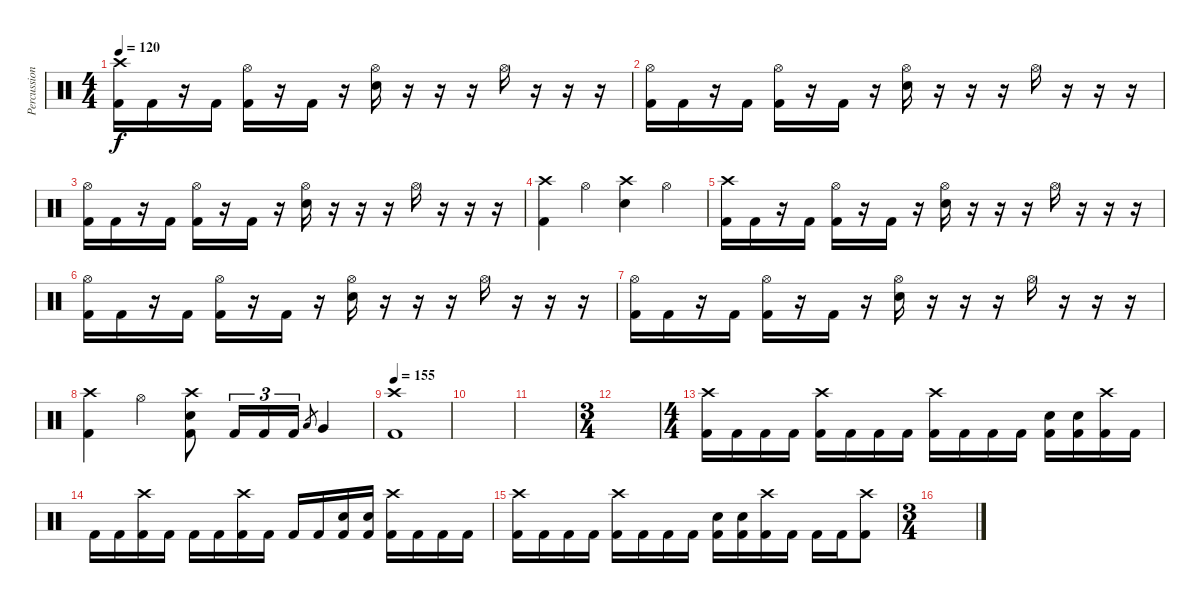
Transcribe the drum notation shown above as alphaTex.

\track ("Percussion" "Percussion") {instrument percussion}
\staff {score}
\articulation defaults
\ts (4 4)
\tempo 120
\clef neutral
\ks c
("Crash high (hit)" "Kick (hit) 2").16{dy f} "Kick (hit) 2".16 r.16 "Kick (hit) 2".16 ("Hi-Hat (open)" "Kick (hit) 2").16 r.16 "Kick (hit) 2".16 r.16 ("Hi-Hat (open)" "Snare (hit) 2").16 r.16 r.16 r.16 "Hi-Hat (open)".16 r.16 r.16 r.16 |
("Hi-Hat (open)" "Kick (hit) 2").16 "Kick (hit) 2".16 r.16 "Kick (hit) 2".16 ("Hi-Hat (open)" "Kick (hit) 2").16 r.16 "Kick (hit) 2".16 r.16 ("Hi-Hat (open)" "Snare (hit) 2").16 r.16 r.16 r.16 "Hi-Hat (open)".16 r.16 r.16 r.16 |
("Hi-Hat (open)" "Kick (hit) 2").16 "Kick (hit) 2".16 r.16 "Kick (hit) 2".16 ("Hi-Hat (open)" "Kick (hit) 2").16 r.16 "Kick (hit) 2".16 r.16 ("Hi-Hat (open)" "Snare (hit) 2").16 r.16 r.16 r.16 "Hi-Hat (open)".16 r.16 r.16 r.16 |
("Crash high (hit)" "Kick (hit) 2").4 "Hi-Hat (open)".4 ("Crash high (hit)" "Snare (hit) 2").4 "Hi-Hat (open)".4 |
("Crash high (hit)" "Kick (hit) 2").16 "Kick (hit) 2".16 r.16 "Kick (hit) 2".16 ("Hi-Hat (open)" "Kick (hit) 2").16 r.16 "Kick (hit) 2".16 r.16 ("Hi-Hat (open)" "Snare (hit) 2").16 r.16 r.16 r.16 "Hi-Hat (open)".16 r.16 r.16 r.16 |
("Hi-Hat (open)" "Kick (hit) 2").16 "Kick (hit) 2".16 r.16 "Kick (hit) 2".16 ("Hi-Hat (open)" "Kick (hit) 2").16 r.16 "Kick (hit) 2".16 r.16 ("Hi-Hat (open)" "Snare (hit) 2").16 r.16 r.16 r.16 "Hi-Hat (open)".16 r.16 r.16 r.16 |
("Hi-Hat (open)" "Kick (hit) 2").16 "Kick (hit) 2".16 r.16 "Kick (hit) 2".16 ("Hi-Hat (open)" "Kick (hit) 2").16 r.16 "Kick (hit) 2".16 r.16 ("Hi-Hat (open)" "Snare (hit) 2").16 r.16 r.16 r.16 "Hi-Hat (open)".16 r.16 r.16 r.16 |
("Crash high (hit)" "Kick (hit) 2").4 "Hi-Hat (open)".4 ("Crash high (hit)" "Snare (hit) 2" "Kick (hit) 2").8 "Kick (hit) 2".16{tu (3 2)} "Kick (hit) 2".16{tu (3 2)} "Kick (hit) 2".16{tu (3 2)} "Low Floor Tom (hit)".8{gr} "Very Low Tom (hit)".4 |
\tempo 155
("Crash high (hit)" "Kick (hit) 2").1 |
|
|
\ts (3 4)
|
\ts (4 4)
("Crash high (hit)" "Kick (hit) 2").16 "Kick (hit) 2".16 "Kick (hit) 2".16 "Kick (hit) 2".16 ("Crash high (hit)" "Kick (hit) 2").16 "Kick (hit) 2".16 "Kick (hit) 2".16 "Kick (hit) 2".16 ("Crash high (hit)" "Kick (hit) 2").16 "Kick (hit) 2".16 "Kick (hit) 2".16 "Kick (hit) 2".16 ("Snare (hit) 2" "Kick (hit) 2").16 ("Snare (hit) 2" "Kick (hit) 2").16 ("Crash high (hit)" "Kick (hit) 2").16 "Kick (hit) 2".16 |
"Kick (hit) 2".16 "Kick (hit) 2".16 ("Crash high (hit)" "Kick (hit) 2").16 "Kick (hit) 2".16 "Kick (hit) 2".16 "Kick (hit) 2".16 ("Crash high (hit)" "Kick (hit) 2").16 "Kick (hit) 2".16 "Kick (hit) 2".16 "Kick (hit) 2".16 ("Snare (hit) 2" "Kick (hit) 2").16 ("Snare (hit) 2" "Kick (hit) 2").16 ("Crash high (hit)" "Kick (hit) 2").16 "Kick (hit) 2".16 "Kick (hit) 2".16 "Kick (hit) 2".16 |
("Crash high (hit)" "Kick (hit) 2").16 "Kick (hit) 2".16 "Kick (hit) 2".16 "Kick (hit) 2".16 ("Crash high (hit)" "Kick (hit) 2").16 "Kick (hit) 2".16 "Kick (hit) 2".16 "Kick (hit) 2".16 ("Snare (hit) 2" "Kick (hit) 2").16 ("Snare (hit) 2" "Kick (hit) 2").16 ("Crash high (hit)" "Kick (hit) 2").16 "Kick (hit) 2".16 "Kick (hit) 2".16 "Kick (hit) 2".16 ("Crash high (hit)" "Kick (hit) 2").8 |
\ts (3 4)
